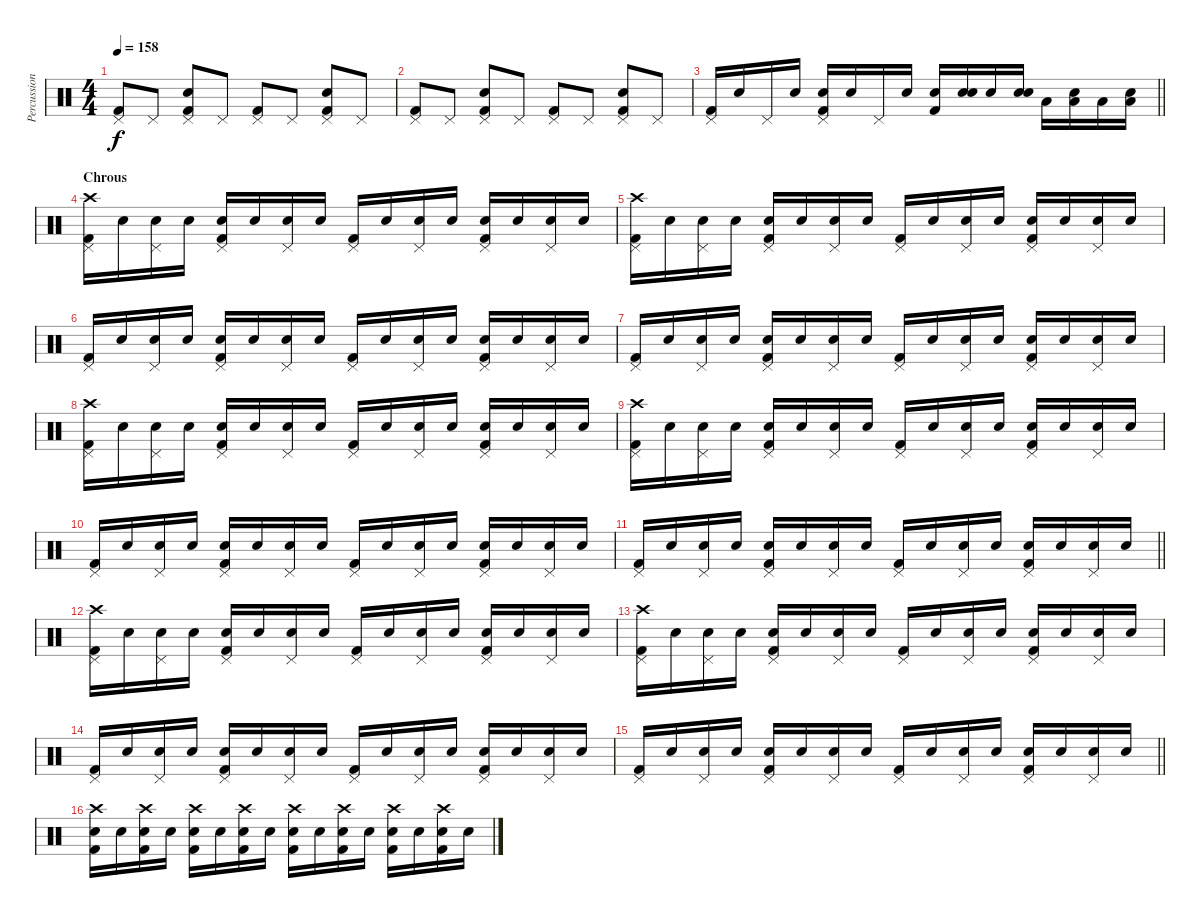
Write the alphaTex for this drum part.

\track ("Percussion" "Percussion") {instrument percussion}
\staff {score}
\articulation defaults
\ts (4 4)
\tempo 158
\clef neutral
\ks c
("Kick (hit) 2" "Pedal Hi-Hat (hit)").8{dy f} "Pedal Hi-Hat (hit)".8 ("Snare (hit) 2" "Kick (hit) 2" "Pedal Hi-Hat (hit)").8 "Pedal Hi-Hat (hit)".8 ("Kick (hit) 2" "Pedal Hi-Hat (hit)").8 "Pedal Hi-Hat (hit)".8 ("Snare (hit) 2" "Kick (hit) 2" "Pedal Hi-Hat (hit)").8 "Pedal Hi-Hat (hit)".8 |
("Kick (hit) 2" "Pedal Hi-Hat (hit)").8 "Pedal Hi-Hat (hit)".8 ("Snare (hit) 2" "Kick (hit) 2" "Pedal Hi-Hat (hit)").8 "Pedal Hi-Hat (hit)".8 ("Kick (hit) 2" "Pedal Hi-Hat (hit)").8 "Pedal Hi-Hat (hit)".8 ("Snare (hit) 2" "Kick (hit) 2" "Pedal Hi-Hat (hit)").8 "Pedal Hi-Hat (hit)".8 |
\barLineRight lightlight
("Kick (hit) 2" "Pedal Hi-Hat (hit)").16 "Snare (hit)".16 "Pedal Hi-Hat (hit)".16 "Snare (hit)".16 ("Snare (hit) 2" "Kick (hit) 2" "Pedal Hi-Hat (hit)").16 "Snare (hit)".16 "Pedal Hi-Hat (hit)".16 "Snare (hit)".16 ("Snare (hit) 2" "Kick (hit) 2").16 ("Snare (hit) 2" "Snare (hit)").16 "Snare (hit) 2".16 ("Snare (hit) 2" "Snare (hit)").16 "Low Tom (hit)".16 ("Low Tom (hit)" "Snare (hit)").16 "Low Tom (hit)".16 ("Low Tom (hit)" "Snare (hit)").16 |
\section ("" "Chrous")
("Crash high (hit)" "Kick (hit) 2" "Pedal Hi-Hat (hit)").16 "Snare (hit)".16 ("Snare (hit)" "Pedal Hi-Hat (hit)").16 "Snare (hit)".16 ("Snare (hit) 2" "Kick (hit) 2" "Pedal Hi-Hat (hit)").16 "Snare (hit)".16 ("Snare (hit)" "Pedal Hi-Hat (hit)").16 "Snare (hit)".16 ("Kick (hit) 2" "Pedal Hi-Hat (hit)").16 "Snare (hit)".16 ("Snare (hit)" "Pedal Hi-Hat (hit)").16 "Snare (hit)".16 ("Snare (hit) 2" "Kick (hit) 2" "Pedal Hi-Hat (hit)").16 "Snare (hit)".16 ("Snare (hit)" "Pedal Hi-Hat (hit)").16 "Snare (hit)".16 |
("Crash high (hit)" "Kick (hit) 2" "Pedal Hi-Hat (hit)").16 "Snare (hit)".16 ("Snare (hit)" "Pedal Hi-Hat (hit)").16 "Snare (hit)".16 ("Snare (hit) 2" "Kick (hit) 2" "Pedal Hi-Hat (hit)").16 "Snare (hit)".16 ("Snare (hit)" "Pedal Hi-Hat (hit)").16 "Snare (hit)".16 ("Kick (hit) 2" "Pedal Hi-Hat (hit)").16 "Snare (hit)".16 ("Snare (hit)" "Pedal Hi-Hat (hit)").16 "Snare (hit)".16 ("Snare (hit) 2" "Kick (hit) 2" "Pedal Hi-Hat (hit)").16 "Snare (hit)".16 ("Snare (hit)" "Pedal Hi-Hat (hit)").16 "Snare (hit)".16 |
("Kick (hit) 2" "Pedal Hi-Hat (hit)").16 "Snare (hit)".16 ("Snare (hit)" "Pedal Hi-Hat (hit)").16 "Snare (hit)".16 ("Snare (hit) 2" "Kick (hit) 2" "Pedal Hi-Hat (hit)").16 "Snare (hit)".16 ("Snare (hit)" "Pedal Hi-Hat (hit)").16 "Snare (hit)".16 ("Kick (hit) 2" "Pedal Hi-Hat (hit)").16 "Snare (hit)".16 ("Snare (hit)" "Pedal Hi-Hat (hit)").16 "Snare (hit)".16 ("Snare (hit) 2" "Kick (hit) 2" "Pedal Hi-Hat (hit)").16 "Snare (hit)".16 ("Snare (hit)" "Pedal Hi-Hat (hit)").16 "Snare (hit)".16 |
("Kick (hit) 2" "Pedal Hi-Hat (hit)").16 "Snare (hit)".16 ("Snare (hit)" "Pedal Hi-Hat (hit)").16 "Snare (hit)".16 ("Snare (hit) 2" "Kick (hit) 2" "Pedal Hi-Hat (hit)").16 "Snare (hit)".16 ("Snare (hit)" "Pedal Hi-Hat (hit)").16 "Snare (hit)".16 ("Kick (hit) 2" "Pedal Hi-Hat (hit)").16 "Snare (hit)".16 ("Snare (hit)" "Pedal Hi-Hat (hit)").16 "Snare (hit)".16 ("Snare (hit) 2" "Kick (hit) 2" "Pedal Hi-Hat (hit)").16 "Snare (hit)".16 ("Snare (hit)" "Pedal Hi-Hat (hit)").16 "Snare (hit)".16 |
("Crash high (hit)" "Kick (hit) 2" "Pedal Hi-Hat (hit)").16 "Snare (hit)".16 ("Snare (hit)" "Pedal Hi-Hat (hit)").16 "Snare (hit)".16 ("Snare (hit) 2" "Kick (hit) 2" "Pedal Hi-Hat (hit)").16 "Snare (hit)".16 ("Snare (hit)" "Pedal Hi-Hat (hit)").16 "Snare (hit)".16 ("Kick (hit) 2" "Pedal Hi-Hat (hit)").16 "Snare (hit)".16 ("Snare (hit)" "Pedal Hi-Hat (hit)").16 "Snare (hit)".16 ("Snare (hit) 2" "Kick (hit) 2" "Pedal Hi-Hat (hit)").16 "Snare (hit)".16 ("Snare (hit)" "Pedal Hi-Hat (hit)").16 "Snare (hit)".16 |
("Crash high (hit)" "Kick (hit) 2" "Pedal Hi-Hat (hit)").16 "Snare (hit)".16 ("Snare (hit)" "Pedal Hi-Hat (hit)").16 "Snare (hit)".16 ("Snare (hit) 2" "Kick (hit) 2" "Pedal Hi-Hat (hit)").16 "Snare (hit)".16 ("Snare (hit)" "Pedal Hi-Hat (hit)").16 "Snare (hit)".16 ("Kick (hit) 2" "Pedal Hi-Hat (hit)").16 "Snare (hit)".16 ("Snare (hit)" "Pedal Hi-Hat (hit)").16 "Snare (hit)".16 ("Snare (hit) 2" "Kick (hit) 2" "Pedal Hi-Hat (hit)").16 "Snare (hit)".16 ("Snare (hit)" "Pedal Hi-Hat (hit)").16 "Snare (hit)".16 |
("Kick (hit) 2" "Pedal Hi-Hat (hit)").16 "Snare (hit)".16 ("Snare (hit)" "Pedal Hi-Hat (hit)").16 "Snare (hit)".16 ("Snare (hit) 2" "Kick (hit) 2" "Pedal Hi-Hat (hit)").16 "Snare (hit)".16 ("Snare (hit)" "Pedal Hi-Hat (hit)").16 "Snare (hit)".16 ("Kick (hit) 2" "Pedal Hi-Hat (hit)").16 "Snare (hit)".16 ("Snare (hit)" "Pedal Hi-Hat (hit)").16 "Snare (hit)".16 ("Snare (hit) 2" "Kick (hit) 2" "Pedal Hi-Hat (hit)").16 "Snare (hit)".16 ("Snare (hit)" "Pedal Hi-Hat (hit)").16 "Snare (hit)".16 |
\barLineRight lightlight
("Kick (hit) 2" "Pedal Hi-Hat (hit)").16 "Snare (hit)".16 ("Snare (hit)" "Pedal Hi-Hat (hit)").16 "Snare (hit)".16 ("Snare (hit) 2" "Kick (hit) 2" "Pedal Hi-Hat (hit)").16 "Snare (hit)".16 ("Snare (hit)" "Pedal Hi-Hat (hit)").16 "Snare (hit)".16 ("Kick (hit) 2" "Pedal Hi-Hat (hit)").16 "Snare (hit)".16 ("Snare (hit)" "Pedal Hi-Hat (hit)").16 "Snare (hit)".16 ("Snare (hit) 2" "Kick (hit) 2" "Pedal Hi-Hat (hit)").16 "Snare (hit)".16 ("Snare (hit)" "Pedal Hi-Hat (hit)").16 "Snare (hit)".16 |
("Crash high (hit)" "Kick (hit) 2" "Pedal Hi-Hat (hit)").16 "Snare (hit)".16 ("Snare (hit)" "Pedal Hi-Hat (hit)").16 "Snare (hit)".16 ("Snare (hit) 2" "Kick (hit) 2" "Pedal Hi-Hat (hit)").16 "Snare (hit)".16 ("Snare (hit)" "Pedal Hi-Hat (hit)").16 "Snare (hit)".16 ("Kick (hit) 2" "Pedal Hi-Hat (hit)").16 "Snare (hit)".16 ("Snare (hit)" "Pedal Hi-Hat (hit)").16 "Snare (hit)".16 ("Snare (hit) 2" "Kick (hit) 2" "Pedal Hi-Hat (hit)").16 "Snare (hit)".16 ("Snare (hit)" "Pedal Hi-Hat (hit)").16 "Snare (hit)".16 |
("Crash high (hit)" "Kick (hit) 2" "Pedal Hi-Hat (hit)").16 "Snare (hit)".16 ("Snare (hit)" "Pedal Hi-Hat (hit)").16 "Snare (hit)".16 ("Snare (hit) 2" "Kick (hit) 2" "Pedal Hi-Hat (hit)").16 "Snare (hit)".16 ("Snare (hit)" "Pedal Hi-Hat (hit)").16 "Snare (hit)".16 ("Kick (hit) 2" "Pedal Hi-Hat (hit)").16 "Snare (hit)".16 ("Snare (hit)" "Pedal Hi-Hat (hit)").16 "Snare (hit)".16 ("Snare (hit) 2" "Kick (hit) 2" "Pedal Hi-Hat (hit)").16 "Snare (hit)".16 ("Snare (hit)" "Pedal Hi-Hat (hit)").16 "Snare (hit)".16 |
("Kick (hit) 2" "Pedal Hi-Hat (hit)").16 "Snare (hit)".16 ("Snare (hit)" "Pedal Hi-Hat (hit)").16 "Snare (hit)".16 ("Snare (hit) 2" "Kick (hit) 2" "Pedal Hi-Hat (hit)").16 "Snare (hit)".16 ("Snare (hit)" "Pedal Hi-Hat (hit)").16 "Snare (hit)".16 ("Kick (hit) 2" "Pedal Hi-Hat (hit)").16 "Snare (hit)".16 ("Snare (hit)" "Pedal Hi-Hat (hit)").16 "Snare (hit)".16 ("Snare (hit) 2" "Kick (hit) 2" "Pedal Hi-Hat (hit)").16 "Snare (hit)".16 ("Snare (hit)" "Pedal Hi-Hat (hit)").16 "Snare (hit)".16 |
\barLineRight lightlight
("Kick (hit) 2" "Pedal Hi-Hat (hit)").16 "Snare (hit)".16 ("Snare (hit)" "Pedal Hi-Hat (hit)").16 "Snare (hit)".16 ("Snare (hit) 2" "Kick (hit) 2" "Pedal Hi-Hat (hit)").16 "Snare (hit)".16 ("Snare (hit)" "Pedal Hi-Hat (hit)").16 "Snare (hit)".16 ("Kick (hit) 2" "Pedal Hi-Hat (hit)").16 "Snare (hit)".16 ("Snare (hit)" "Pedal Hi-Hat (hit)").16 "Snare (hit)".16 ("Snare (hit) 2" "Kick (hit) 2" "Pedal Hi-Hat (hit)").16 "Snare (hit)".16 ("Snare (hit)" "Pedal Hi-Hat (hit)").16 "Snare (hit)".16 |
("Crash high (hit)" "Snare (hit) 2" "Kick (hit) 2").16 "Snare (hit)".16 ("Crash high (hit)" "Snare (hit) 2" "Kick (hit) 2").16 "Snare (hit)".16 ("Crash high (hit)" "Snare (hit) 2" "Kick (hit) 2").16 "Snare (hit)".16 ("Crash high (hit)" "Snare (hit) 2" "Kick (hit) 2").16 "Snare (hit)".16 ("Crash high (hit)" "Snare (hit) 2" "Kick (hit) 2").16 "Snare (hit)".16 ("Crash high (hit)" "Snare (hit) 2" "Kick (hit) 2").16 "Snare (hit)".16 ("Crash high (hit)" "Snare (hit) 2" "Kick (hit) 2").16 "Snare (hit)".16 ("Crash high (hit)" "Snare (hit) 2" "Kick (hit) 2").16 "Snare (hit) 2".16
